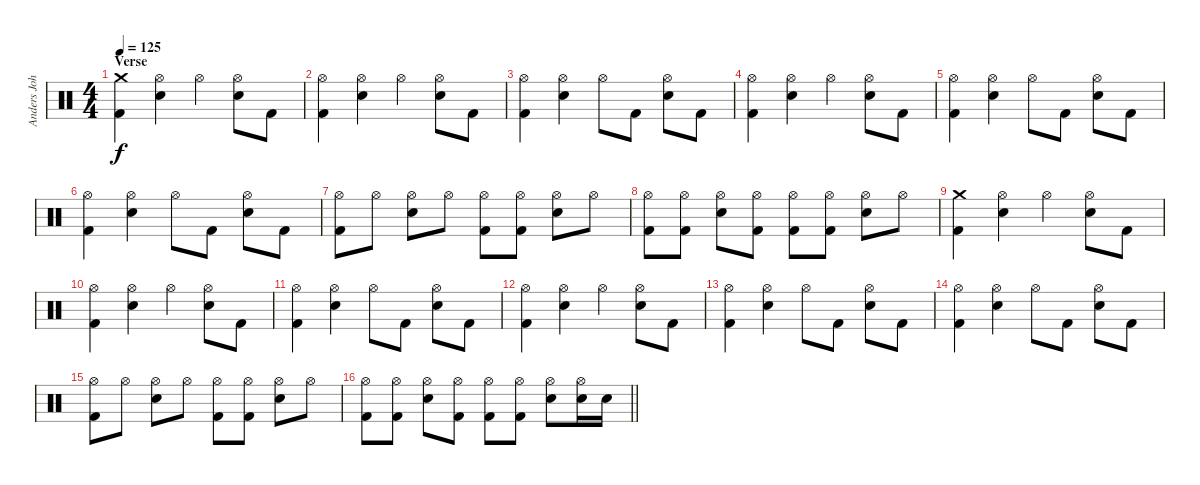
\track ("Anders Johansson" "Anders Joh") {instrument percussion}
\staff {score}
\articulation defaults
\ts (4 4)
\section ("" "Verse")
\tempo 125
\clef neutral
\ks c
("Crash medium (hit)" "Kick (hit) 2").4{dy f} ("Hi-Hat (open)" "Snare (hit) 2").4 "Hi-Hat (open)".4 ("Hi-Hat (open)" "Snare (hit) 2").8 "Kick (hit) 2".8 |
("Hi-Hat (open)" "Kick (hit) 2").4 ("Hi-Hat (open)" "Snare (hit) 2").4 "Hi-Hat (open)".4 ("Hi-Hat (open)" "Snare (hit) 2").8 "Kick (hit) 2".8 |
("Hi-Hat (open)" "Kick (hit) 2").4 ("Hi-Hat (open)" "Snare (hit) 2").4 "Hi-Hat (open)".8 "Kick (hit) 2".8 ("Hi-Hat (open)" "Snare (hit) 2").8 "Kick (hit) 2".8 |
("Hi-Hat (open)" "Kick (hit) 2").4 ("Hi-Hat (open)" "Snare (hit) 2").4 "Hi-Hat (open)".4 ("Hi-Hat (open)" "Snare (hit) 2").8 "Kick (hit) 2".8 |
("Hi-Hat (open)" "Kick (hit) 2").4 ("Hi-Hat (open)" "Snare (hit) 2").4 "Hi-Hat (open)".8 "Kick (hit) 2".8 ("Hi-Hat (open)" "Snare (hit) 2").8 "Kick (hit) 2".8 |
("Hi-Hat (open)" "Kick (hit) 2").4 ("Hi-Hat (open)" "Snare (hit) 2").4 "Hi-Hat (open)".8 "Kick (hit) 2".8 ("Hi-Hat (open)" "Snare (hit) 2").8 "Kick (hit) 2".8 |
("Hi-Hat (open)" "Kick (hit) 2").8 "Hi-Hat (open)".8 ("Hi-Hat (open)" "Snare (hit) 2").8 "Hi-Hat (open)".8 ("Hi-Hat (open)" "Kick (hit) 2").8 ("Hi-Hat (open)" "Kick (hit) 2").8 ("Hi-Hat (open)" "Snare (hit) 2").8 "Hi-Hat (open)".8 |
("Hi-Hat (open)" "Kick (hit) 2").8 ("Hi-Hat (open)" "Kick (hit) 2").8 ("Hi-Hat (open)" "Snare (hit) 2").8 ("Hi-Hat (open)" "Kick (hit) 2").8 ("Hi-Hat (open)" "Kick (hit) 2").8 ("Hi-Hat (open)" "Kick (hit) 2").8 ("Hi-Hat (open)" "Snare (hit) 2").8 "Hi-Hat (open)".8 |
("Crash medium (hit)" "Kick (hit) 2").4 ("Hi-Hat (open)" "Snare (hit) 2").4 "Hi-Hat (open)".4 ("Hi-Hat (open)" "Snare (hit) 2").8 "Kick (hit) 2".8 |
("Hi-Hat (open)" "Kick (hit) 2").4 ("Hi-Hat (open)" "Snare (hit) 2").4 "Hi-Hat (open)".4 ("Hi-Hat (open)" "Snare (hit) 2").8 "Kick (hit) 2".8 |
("Hi-Hat (open)" "Kick (hit) 2").4 ("Hi-Hat (open)" "Snare (hit) 2").4 "Hi-Hat (open)".8 "Kick (hit) 2".8 ("Hi-Hat (open)" "Snare (hit) 2").8 "Kick (hit) 2".8 |
("Hi-Hat (open)" "Kick (hit) 2").4 ("Hi-Hat (open)" "Snare (hit) 2").4 "Hi-Hat (open)".4 ("Hi-Hat (open)" "Snare (hit) 2").8 "Kick (hit) 2".8 |
("Hi-Hat (open)" "Kick (hit) 2").4 ("Hi-Hat (open)" "Snare (hit) 2").4 "Hi-Hat (open)".8 "Kick (hit) 2".8 ("Hi-Hat (open)" "Snare (hit) 2").8 "Kick (hit) 2".8 |
("Hi-Hat (open)" "Kick (hit) 2").4 ("Hi-Hat (open)" "Snare (hit) 2").4 "Hi-Hat (open)".8 "Kick (hit) 2".8 ("Hi-Hat (open)" "Snare (hit) 2").8 "Kick (hit) 2".8 |
("Hi-Hat (open)" "Kick (hit) 2").8 "Hi-Hat (open)".8 ("Hi-Hat (open)" "Snare (hit) 2").8 "Hi-Hat (open)".8 ("Hi-Hat (open)" "Kick (hit) 2").8 ("Hi-Hat (open)" "Kick (hit) 2").8 ("Hi-Hat (open)" "Snare (hit) 2").8 "Hi-Hat (open)".8 |
\barLineRight lightlight
("Hi-Hat (open)" "Kick (hit) 2").8 ("Hi-Hat (open)" "Kick (hit) 2").8 ("Hi-Hat (open)" "Snare (hit) 2").8 ("Hi-Hat (open)" "Kick (hit) 2").8 ("Hi-Hat (open)" "Kick (hit) 2").8 ("Hi-Hat (open)" "Kick (hit) 2").8 ("Hi-Hat (open)" "Snare (hit) 2").8 ("Hi-Hat (open)" "Electric Snare (hit)").16 "Electric Snare (hit)".16
